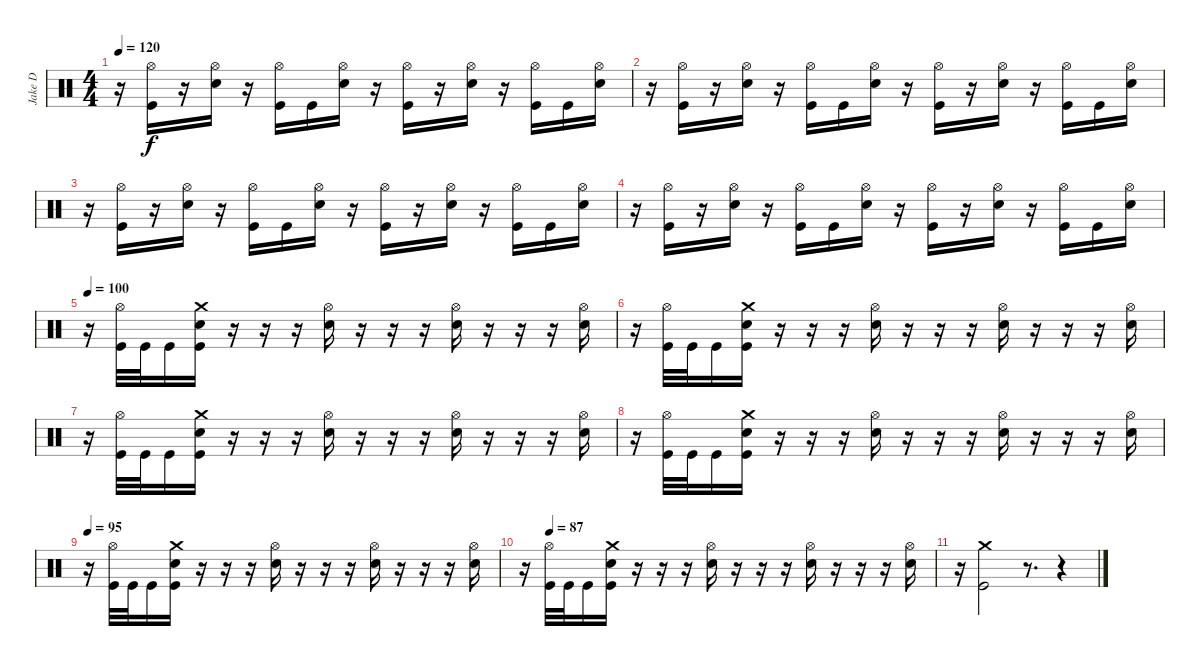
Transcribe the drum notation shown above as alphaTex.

\track ("Jake D" "Jake D") {instrument percussion}
\staff {score}
\articulation defaults
\ts (4 4)
\tempo 120
\clef neutral
\ks c
r.16{dy f} ("Hi-Hat (open)" "Kick (hit)").16 r.16 ("Hi-Hat (open)" "Electric Snare (hit)").16 r.16 ("Hi-Hat (open)" "Kick (hit)").16 "Kick (hit)".16 ("Hi-Hat (open)" "Electric Snare (hit)").16 r.16 ("Hi-Hat (open)" "Kick (hit)").16 r.16 ("Hi-Hat (open)" "Electric Snare (hit)").16 r.16 ("Hi-Hat (open)" "Kick (hit)").16 "Kick (hit)".16 ("Hi-Hat (open)" "Electric Snare (hit)").16 |
r.16 ("Hi-Hat (open)" "Kick (hit)").16 r.16 ("Hi-Hat (open)" "Electric Snare (hit)").16 r.16 ("Hi-Hat (open)" "Kick (hit)").16 "Kick (hit)".16 ("Hi-Hat (open)" "Electric Snare (hit)").16 r.16 ("Hi-Hat (open)" "Kick (hit)").16 r.16 ("Hi-Hat (open)" "Electric Snare (hit)").16 r.16 ("Hi-Hat (open)" "Kick (hit)").16 "Kick (hit)".16 ("Hi-Hat (open)" "Electric Snare (hit)").16 |
r.16 ("Hi-Hat (open)" "Kick (hit)").16 r.16 ("Hi-Hat (open)" "Electric Snare (hit)").16 r.16 ("Hi-Hat (open)" "Kick (hit)").16 "Kick (hit)".16 ("Hi-Hat (open)" "Electric Snare (hit)").16 r.16 ("Hi-Hat (open)" "Kick (hit)").16 r.16 ("Hi-Hat (open)" "Electric Snare (hit)").16 r.16 ("Hi-Hat (open)" "Kick (hit)").16 "Kick (hit)".16 ("Hi-Hat (open)" "Electric Snare (hit)").16 |
r.16 ("Hi-Hat (open)" "Kick (hit)").16 r.16 ("Hi-Hat (open)" "Electric Snare (hit)").16 r.16 ("Hi-Hat (open)" "Kick (hit)").16 "Kick (hit)".16 ("Hi-Hat (open)" "Electric Snare (hit)").16 r.16 ("Hi-Hat (open)" "Kick (hit)").16 r.16 ("Hi-Hat (open)" "Electric Snare (hit)").16 r.16 ("Hi-Hat (open)" "Kick (hit)").16 "Kick (hit)".16 ("Hi-Hat (open)" "Electric Snare (hit)").16 |
\tempo 100
r.16 ("Hi-Hat (open)" "Kick (hit)").32 "Kick (hit)".32 "Kick (hit)".16 ("Crash medium (hit)" "Electric Snare (hit)" "Kick (hit)").16 r.16 r.16 r.16 ("Hi-Hat (open)" "Electric Snare (hit)").16 r.16 r.16 r.16 ("Hi-Hat (open)" "Electric Snare (hit)").16 r.16 r.16 r.16 ("Hi-Hat (open)" "Electric Snare (hit)").16 |
r.16 ("Hi-Hat (open)" "Kick (hit)").32 "Kick (hit)".32 "Kick (hit)".16 ("Crash medium (hit)" "Electric Snare (hit)" "Kick (hit)").16 r.16 r.16 r.16 ("Hi-Hat (open)" "Electric Snare (hit)").16 r.16 r.16 r.16 ("Hi-Hat (open)" "Electric Snare (hit)").16 r.16 r.16 r.16 ("Hi-Hat (open)" "Electric Snare (hit)").16 |
r.16 ("Hi-Hat (open)" "Kick (hit)").32 "Kick (hit)".32 "Kick (hit)".16 ("Crash medium (hit)" "Electric Snare (hit)" "Kick (hit)").16 r.16 r.16 r.16 ("Hi-Hat (open)" "Electric Snare (hit)").16 r.16 r.16 r.16 ("Hi-Hat (open)" "Electric Snare (hit)").16 r.16 r.16 r.16 ("Hi-Hat (open)" "Electric Snare (hit)").16 |
r.16 ("Hi-Hat (open)" "Kick (hit)").32 "Kick (hit)".32 "Kick (hit)".16 ("Crash medium (hit)" "Electric Snare (hit)" "Kick (hit)").16 r.16 r.16 r.16 ("Hi-Hat (open)" "Electric Snare (hit)").16 r.16 r.16 r.16 ("Hi-Hat (open)" "Electric Snare (hit)").16 r.16 r.16 r.16 ("Hi-Hat (open)" "Electric Snare (hit)").16 |
\tempo 95
r.16 ("Hi-Hat (open)" "Kick (hit)").32 "Kick (hit)".32 "Kick (hit)".16 ("Crash medium (hit)" "Electric Snare (hit)" "Kick (hit)").16 r.16 r.16 r.16 ("Hi-Hat (open)" "Electric Snare (hit)").16 r.16 r.16 r.16 ("Hi-Hat (open)" "Electric Snare (hit)").16 r.16 r.16 r.16 ("Hi-Hat (open)" "Electric Snare (hit)").16 |
\tempo (87 0.0625)
r.16 ("Hi-Hat (open)" "Kick (hit)").32 "Kick (hit)".32 "Kick (hit)".16 ("Crash medium (hit)" "Electric Snare (hit)" "Kick (hit)").16 r.16 r.16 r.16 ("Hi-Hat (open)" "Electric Snare (hit)").16 r.16 r.16 r.16 ("Hi-Hat (open)" "Electric Snare (hit)").16 r.16 r.16 r.16 ("Hi-Hat (open)" "Electric Snare (hit)").16 |
r.16 ("Crash medium (hit)" "Kick (hit)").2 r.8{d} r.4
